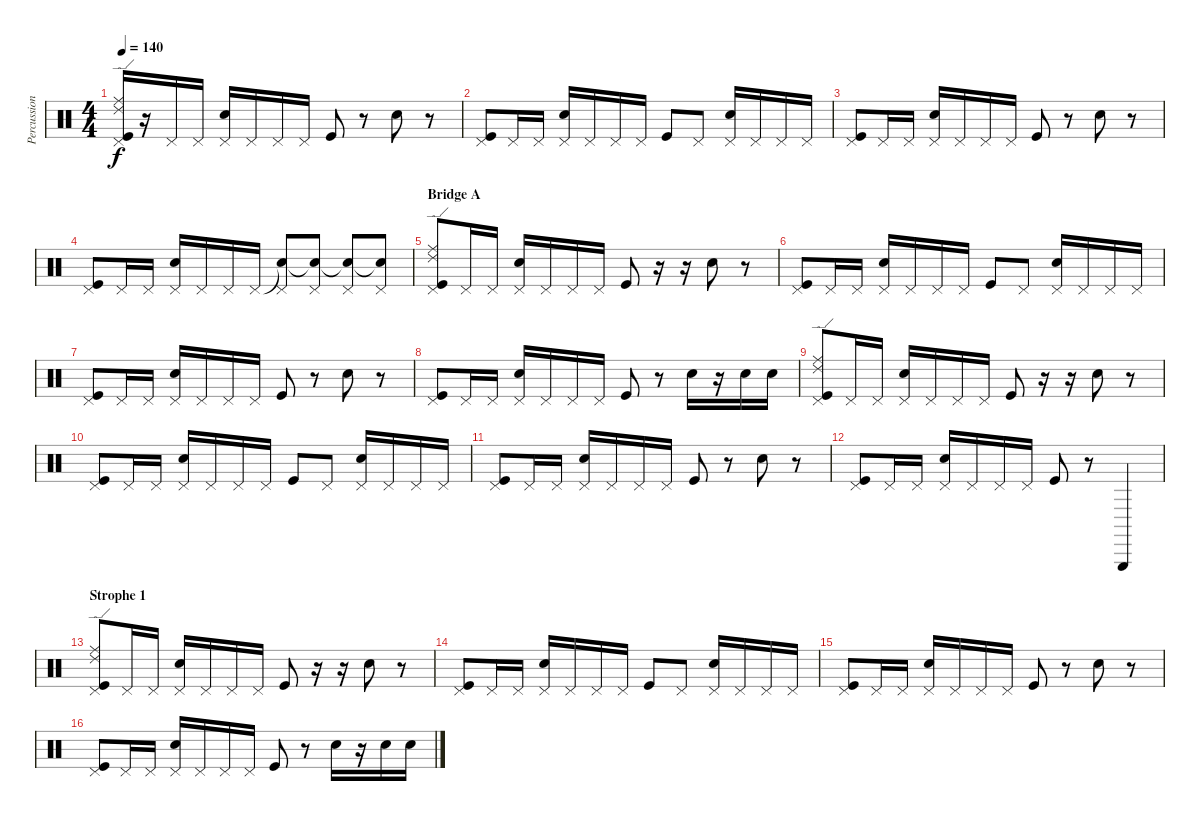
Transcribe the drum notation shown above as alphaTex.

\track ("Percussion" "Percussion") {instrument percussion}
\staff {score}
\articulation defaults
\ts (4 4)
\tempo 140
\clef neutral
\ks c
("Ride (middle)" "Ride (edge) 2" "Pedal Hi-Hat (hit)" "Kick (hit)").16{dy f} r.16 "Pedal Hi-Hat (hit)".16 "Pedal Hi-Hat (hit)".16 ("Pedal Hi-Hat (hit)" "Snare (hit) 2").16 "Pedal Hi-Hat (hit)".16 "Pedal Hi-Hat (hit)".16 "Pedal Hi-Hat (hit)".16 "Kick (hit)".8 r.8 "Snare (hit) 2".8 r.8 |
("Pedal Hi-Hat (hit)" "Kick (hit)").8 "Pedal Hi-Hat (hit)".16 "Pedal Hi-Hat (hit)".16 ("Pedal Hi-Hat (hit)" "Snare (hit) 2").16 "Pedal Hi-Hat (hit)".16 "Pedal Hi-Hat (hit)".16 "Pedal Hi-Hat (hit)".16 "Kick (hit)".8 "Pedal Hi-Hat (hit)".8 ("Pedal Hi-Hat (hit)" "Snare (hit) 2").16 "Pedal Hi-Hat (hit)".16 "Pedal Hi-Hat (hit)".16 "Pedal Hi-Hat (hit)".16 |
("Pedal Hi-Hat (hit)" "Kick (hit)").8 "Pedal Hi-Hat (hit)".16 "Pedal Hi-Hat (hit)".16 ("Pedal Hi-Hat (hit)" "Snare (hit) 2").16 "Pedal Hi-Hat (hit)".16 "Pedal Hi-Hat (hit)".16 "Pedal Hi-Hat (hit)".16 "Kick (hit)".8 r.8 "Snare (hit) 2".8 r.8 |
("Pedal Hi-Hat (hit)" "Kick (hit)").8 "Pedal Hi-Hat (hit)".16 "Pedal Hi-Hat (hit)".16 ("Pedal Hi-Hat (hit)" "Snare (hit) 2").16 "Pedal Hi-Hat (hit)".16 "Pedal Hi-Hat (hit)".16 "Pedal Hi-Hat (hit)".16 ("Snare (hit)"{t} "Pedal Hi-Hat (hit)").8 ("Snare (hit)"{t} "Pedal Hi-Hat (hit)").8 ("Snare (hit)"{t} "Pedal Hi-Hat (hit)").8 ("Snare (hit)"{t} "Pedal Hi-Hat (hit)").8 |
\section ("" "Bridge A")
("Ride (middle)" "Ride (edge) 2" "Pedal Hi-Hat (hit)" "Kick (hit)").8 "Pedal Hi-Hat (hit)".16 "Pedal Hi-Hat (hit)".16 ("Pedal Hi-Hat (hit)" "Snare (hit) 2").16 "Pedal Hi-Hat (hit)".16 "Pedal Hi-Hat (hit)".16 "Pedal Hi-Hat (hit)".16 "Kick (hit)".8 r.16 r.16 "Snare (hit) 2".8 r.8 |
("Pedal Hi-Hat (hit)" "Kick (hit)").8 "Pedal Hi-Hat (hit)".16 "Pedal Hi-Hat (hit)".16 ("Pedal Hi-Hat (hit)" "Snare (hit) 2").16 "Pedal Hi-Hat (hit)".16 "Pedal Hi-Hat (hit)".16 "Pedal Hi-Hat (hit)".16 "Kick (hit)".8 "Pedal Hi-Hat (hit)".8 ("Pedal Hi-Hat (hit)" "Snare (hit) 2").16 "Pedal Hi-Hat (hit)".16 "Pedal Hi-Hat (hit)".16 "Pedal Hi-Hat (hit)".16 |
("Pedal Hi-Hat (hit)" "Kick (hit)").8 "Pedal Hi-Hat (hit)".16 "Pedal Hi-Hat (hit)".16 ("Pedal Hi-Hat (hit)" "Snare (hit) 2").16 "Pedal Hi-Hat (hit)".16 "Pedal Hi-Hat (hit)".16 "Pedal Hi-Hat (hit)".16 "Kick (hit)".8 r.8 "Snare (hit) 2".8 r.8 |
("Pedal Hi-Hat (hit)" "Kick (hit)").8 "Pedal Hi-Hat (hit)".16 "Pedal Hi-Hat (hit)".16 ("Pedal Hi-Hat (hit)" "Snare (hit) 2").16 "Pedal Hi-Hat (hit)".16 "Pedal Hi-Hat (hit)".16 "Pedal Hi-Hat (hit)".16 "Kick (hit)".8 r.8 "Snare (hit) 2".16 r.16 "Snare (hit) 2".16 "Snare (hit) 2".16 |
("Ride (middle)" "Ride (edge) 2" "Pedal Hi-Hat (hit)" "Kick (hit)").8 "Pedal Hi-Hat (hit)".16 "Pedal Hi-Hat (hit)".16 ("Pedal Hi-Hat (hit)" "Snare (hit) 2").16 "Pedal Hi-Hat (hit)".16 "Pedal Hi-Hat (hit)".16 "Pedal Hi-Hat (hit)".16 "Kick (hit)".8 r.16 r.16 "Snare (hit) 2".8 r.8 |
("Pedal Hi-Hat (hit)" "Kick (hit)").8 "Pedal Hi-Hat (hit)".16 "Pedal Hi-Hat (hit)".16 ("Pedal Hi-Hat (hit)" "Snare (hit) 2").16 "Pedal Hi-Hat (hit)".16 "Pedal Hi-Hat (hit)".16 "Pedal Hi-Hat (hit)".16 "Kick (hit)".8 "Pedal Hi-Hat (hit)".8 ("Pedal Hi-Hat (hit)" "Snare (hit) 2").16 "Pedal Hi-Hat (hit)".16 "Pedal Hi-Hat (hit)".16 "Pedal Hi-Hat (hit)".16 |
("Pedal Hi-Hat (hit)" "Kick (hit)").8 "Pedal Hi-Hat (hit)".16 "Pedal Hi-Hat (hit)".16 ("Pedal Hi-Hat (hit)" "Snare (hit) 2").16 "Pedal Hi-Hat (hit)".16 "Pedal Hi-Hat (hit)".16 "Pedal Hi-Hat (hit)".16 "Kick (hit)".8 r.8 "Snare (hit) 2".8 r.8 |
("Pedal Hi-Hat (hit)" "Kick (hit)").8 "Pedal Hi-Hat (hit)".16 "Pedal Hi-Hat (hit)".16 ("Pedal Hi-Hat (hit)" "Snare (hit) 2").16 "Pedal Hi-Hat (hit)".16 "Pedal Hi-Hat (hit)".16 "Pedal Hi-Hat (hit)".16 "Kick (hit)".8 r.8 "Triangle (hit)".4 |
\section ("" "Strophe 1")
("Ride (middle)" "Ride (edge) 2" "Pedal Hi-Hat (hit)" "Kick (hit)").8 "Pedal Hi-Hat (hit)".16 "Pedal Hi-Hat (hit)".16 ("Pedal Hi-Hat (hit)" "Snare (hit) 2").16 "Pedal Hi-Hat (hit)".16 "Pedal Hi-Hat (hit)".16 "Pedal Hi-Hat (hit)".16 "Kick (hit)".8 r.16 r.16 "Snare (hit) 2".8 r.8 |
("Pedal Hi-Hat (hit)" "Kick (hit)").8 "Pedal Hi-Hat (hit)".16 "Pedal Hi-Hat (hit)".16 ("Pedal Hi-Hat (hit)" "Snare (hit) 2").16 "Pedal Hi-Hat (hit)".16 "Pedal Hi-Hat (hit)".16 "Pedal Hi-Hat (hit)".16 "Kick (hit)".8 "Pedal Hi-Hat (hit)".8 ("Pedal Hi-Hat (hit)" "Snare (hit) 2").16 "Pedal Hi-Hat (hit)".16 "Pedal Hi-Hat (hit)".16 "Pedal Hi-Hat (hit)".16 |
("Pedal Hi-Hat (hit)" "Kick (hit)").8 "Pedal Hi-Hat (hit)".16 "Pedal Hi-Hat (hit)".16 ("Pedal Hi-Hat (hit)" "Snare (hit) 2").16 "Pedal Hi-Hat (hit)".16 "Pedal Hi-Hat (hit)".16 "Pedal Hi-Hat (hit)".16 "Kick (hit)".8 r.8 "Snare (hit) 2".8 r.8 |
("Pedal Hi-Hat (hit)" "Kick (hit)").8 "Pedal Hi-Hat (hit)".16 "Pedal Hi-Hat (hit)".16 ("Pedal Hi-Hat (hit)" "Snare (hit) 2").16 "Pedal Hi-Hat (hit)".16 "Pedal Hi-Hat (hit)".16 "Pedal Hi-Hat (hit)".16 "Kick (hit)".8 r.8 "Snare (hit) 2".16 r.16 "Snare (hit) 2".16 "Snare (hit) 2".16
